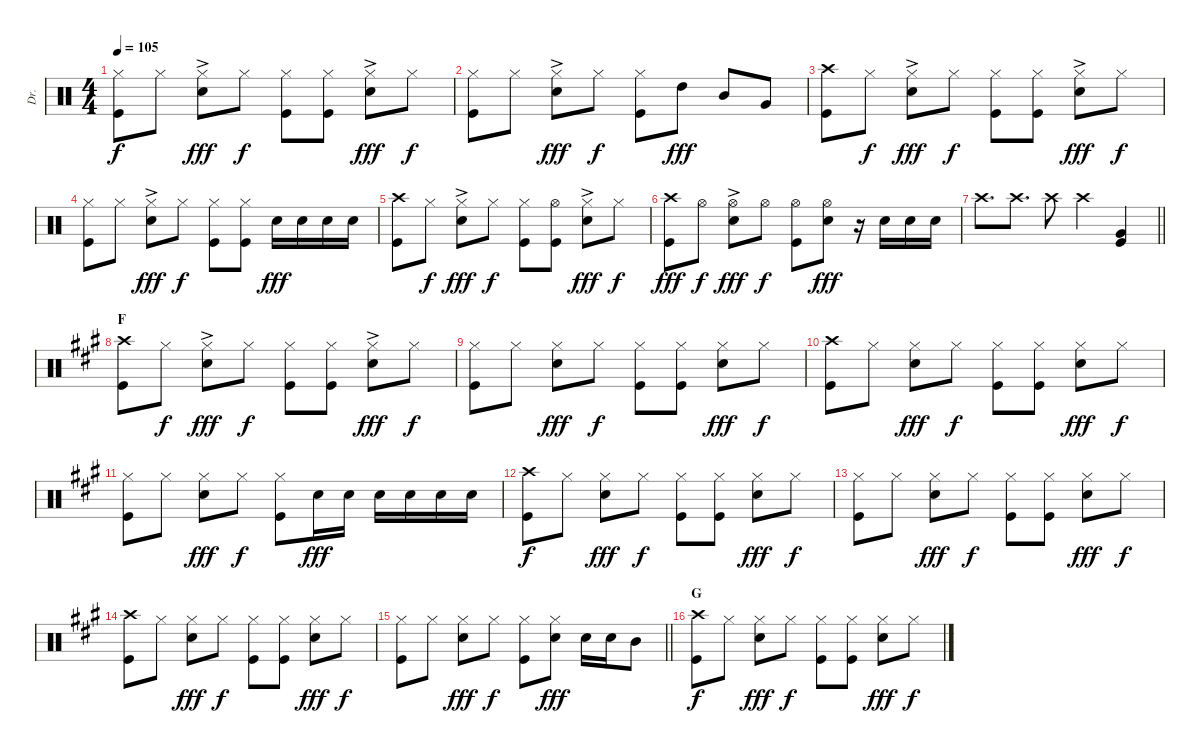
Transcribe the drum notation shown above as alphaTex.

\track ("Dr." "Dr.") {instrument percussion}
\staff {score}
\articulation defaults
\ts (4 4)
\tempo 105
\clef neutral
\ks c
("Hi-Hat (closed)" "Kick (hit)").8{dy f} "Hi-Hat (closed)".8 ("Hi-Hat (closed)"{ac} "Snare (hit) 2"{ac}).8{dy fff} "Hi-Hat (closed)".8{dy f} ("Hi-Hat (closed)" "Kick (hit)").8 ("Hi-Hat (closed)" "Kick (hit)").8 ("Hi-Hat (closed)"{ac} "Snare (hit) 2"{ac}).8{dy fff} "Hi-Hat (closed)".8{dy f} |
("Hi-Hat (closed)" "Kick (hit)").8 "Hi-Hat (closed)".8 ("Hi-Hat (closed)"{ac} "Snare (hit) 2"{ac}).8{dy fff} "Hi-Hat (closed)".8{dy f} ("Hi-Hat (closed)" "Kick (hit)").8 "High Tom (hit)".8{dy fff} "Mid Tom (hit)".8 "Very Low Tom (hit)".8 |
("Crash high (hit)" "Kick (hit)").8 "Hi-Hat (closed)".8{dy f} ("Hi-Hat (closed)"{ac} "Snare (hit) 2"{ac}).8{dy fff} "Hi-Hat (closed)".8{dy f} ("Hi-Hat (closed)" "Kick (hit)").8 ("Hi-Hat (closed)" "Kick (hit)").8 ("Hi-Hat (closed)"{ac} "Snare (hit) 2"{ac}).8{dy fff} "Hi-Hat (closed)".8{dy f} |
("Hi-Hat (closed)" "Kick (hit)").8 "Hi-Hat (closed)".8 ("Hi-Hat (closed)"{ac} "Snare (hit) 2"{ac}).8{dy fff} "Hi-Hat (closed)".8{dy f} ("Hi-Hat (closed)" "Kick (hit)").8 ("Hi-Hat (closed)" "Kick (hit)").8 "Snare (hit) 2".16{dy fff} "Snare (hit) 2".16 "Snare (hit) 2".16 "Snare (hit) 2".16 |
("Crash high (hit)" "Kick (hit)").8 "Hi-Hat (closed)".8{dy f} ("Hi-Hat (closed)"{ac} "Snare (hit) 2"{ac}).8{dy fff} "Hi-Hat (closed)".8{dy f} ("Hi-Hat (closed)" "Kick (hit)").8 ("Hi-Hat (open)" "Kick (hit)").8 ("Hi-Hat (closed)"{ac} "Snare (hit) 2"{ac}).8{dy fff} "Hi-Hat (closed)".8{dy f} |
("Crash high (hit)" "Kick (hit)").8{dy fff} "Hi-Hat (open)".8{dy f} ("Hi-Hat (open)"{ac} "Snare (hit) 2"{ac}).8{dy fff} "Hi-Hat (open)".8{dy f} ("Hi-Hat (open)" "Kick (hit)").8 ("Hi-Hat (open)" "Snare (hit) 2").8{dy fff} r.16 "Snare (hit) 2".16 "Snare (hit) 2".16 "Snare (hit) 2".16 |
\barLineRight lightlight "Crash high (hit)".8{d} "Crash high (hit)".8{d} "Crash high (hit)".8 "Crash high (hit)".4
("Very Low Tom (hit)" "Kick (hit)").4 |
\section ("" "F")
\ks a
("Crash high (hit)" "Kick (hit)").8 "Hi-Hat (closed)".8{dy f} ("Hi-Hat (closed)"{ac} "Snare (hit) 2"{ac}).8{dy fff} "Hi-Hat (closed)".8{dy f} ("Hi-Hat (closed)" "Kick (hit)").8 ("Hi-Hat (closed)" "Kick (hit)").8 ("Hi-Hat (closed)"{ac} "Snare (hit) 2"{ac}).8{dy fff} "Hi-Hat (closed)".8{dy f} |
("Hi-Hat (closed)" "Kick (hit)").8 "Hi-Hat (closed)".8 ("Hi-Hat (closed)" "Snare (hit) 2").8{dy fff} "Hi-Hat (closed)".8{dy f} ("Hi-Hat (closed)" "Kick (hit)").8 ("Hi-Hat (closed)" "Kick (hit)").8 ("Hi-Hat (closed)" "Snare (hit) 2").8{dy fff} "Hi-Hat (closed)".8{dy f} |
("Crash high (hit)" "Kick (hit)").8 "Hi-Hat (closed)".8 ("Hi-Hat (closed)" "Snare (hit) 2").8{dy fff} "Hi-Hat (closed)".8{dy f} ("Hi-Hat (closed)" "Kick (hit)").8 ("Hi-Hat (closed)" "Kick (hit)").8 ("Hi-Hat (closed)" "Snare (hit) 2").8{dy fff} "Hi-Hat (closed)".8{dy f} |
("Hi-Hat (closed)" "Kick (hit)").8 "Hi-Hat (closed)".8 ("Hi-Hat (closed)" "Snare (hit) 2").8{dy fff} "Hi-Hat (closed)".8{dy f} ("Hi-Hat (closed)" "Kick (hit)").8 "Snare (hit) 2".16{dy fff} "Snare (hit) 2".16 "Snare (hit) 2".16 "Snare (hit) 2".16 "Snare (hit) 2".16 "Snare (hit) 2".16 |
("Crash high (hit)" "Kick (hit)").8{dy f} "Hi-Hat (closed)".8 ("Hi-Hat (closed)" "Snare (hit) 2").8{dy fff} "Hi-Hat (closed)".8{dy f} ("Hi-Hat (closed)" "Kick (hit)").8 ("Hi-Hat (closed)" "Kick (hit)").8 ("Hi-Hat (closed)" "Snare (hit) 2").8{dy fff} "Hi-Hat (closed)".8{dy f} |
("Hi-Hat (closed)" "Kick (hit)").8 "Hi-Hat (closed)".8 ("Hi-Hat (closed)" "Snare (hit) 2").8{dy fff} "Hi-Hat (closed)".8{dy f} ("Hi-Hat (closed)" "Kick (hit)").8 ("Hi-Hat (closed)" "Kick (hit)").8 ("Hi-Hat (closed)" "Snare (hit) 2").8{dy fff} "Hi-Hat (closed)".8{dy f} |
("Crash high (hit)" "Kick (hit)").8 "Hi-Hat (closed)".8 ("Hi-Hat (closed)" "Snare (hit) 2").8{dy fff} "Hi-Hat (closed)".8{dy f} ("Hi-Hat (closed)" "Kick (hit)").8 ("Hi-Hat (closed)" "Kick (hit)").8 ("Hi-Hat (closed)" "Snare (hit) 2").8{dy fff} "Hi-Hat (closed)".8{dy f} |
\barLineRight lightlight
("Hi-Hat (closed)" "Kick (hit)").8 "Hi-Hat (closed)".8 ("Hi-Hat (closed)" "Snare (hit) 2").8{dy fff} "Hi-Hat (closed)".8{dy f} ("Hi-Hat (closed)" "Kick (hit)").8 ("Hi-Hat (closed)" "Snare (hit) 2").8{dy fff} "Snare (hit) 2".16 "Snare (hit) 2".16 "Mid Tom (hit)".8 |
\section ("" "G")
("Crash high (hit)" "Kick (hit)").8{dy f} "Hi-Hat (closed)".8 ("Hi-Hat (closed)" "Snare (hit) 2").8{dy fff} "Hi-Hat (closed)".8{dy f} ("Hi-Hat (closed)" "Kick (hit)").8 ("Hi-Hat (closed)" "Kick (hit)").8 ("Hi-Hat (closed)" "Snare (hit) 2").8{dy fff} "Hi-Hat (closed)".8{dy f}
